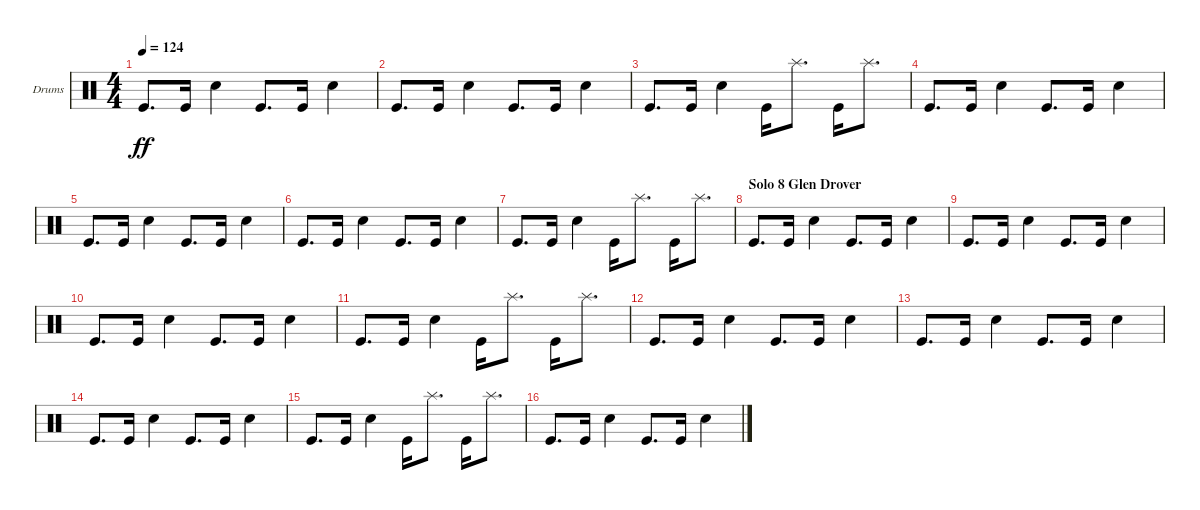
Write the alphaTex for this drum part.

\defaultSystemsLayout 4
\bracketExtendMode groupsimilarinstruments
\firstSystemTrackNameOrientation horizontal
\otherSystemsTrackNameOrientation horizontal
\track ("Nick Menza" "Drums") {instrument percussion}
\staff {score}
\articulation defaults
\ts (4 4)
\tempo 124
\clef neutral
\scale
0.333333
\ks c "Kick (hit)".8{d dy ff} "Kick (hit)".16 "Snare (hit) 2".4 "Kick (hit)".8{d} "Kick (hit)".16 "Snare (hit) 2".4
|
\scale
0.333333 "Kick (hit)".8{d} "Kick (hit)".16 "Snare (hit) 2".4 "Kick (hit)".8{d} "Kick (hit)".16 "Snare (hit) 2".4 |
\scale
0.333333 "Kick (hit)".8{d} "Kick (hit)".16 "Snare (hit) 2".4 "Kick (hit)".16 "Splash (hit)".8{d} "Kick (hit)".16 "Splash (hit)".8{d} |
\scale
0.333333 "Kick (hit)".8{d} "Kick (hit)".16 "Snare (hit) 2".4 "Kick (hit)".8{d} "Kick (hit)".16 "Snare (hit) 2".4 |
\scale
0.333333 "Kick (hit)".8{d} "Kick (hit)".16 "Snare (hit) 2".4 "Kick (hit)".8{d} "Kick (hit)".16 "Snare (hit) 2".4 |
\scale
0.333333 "Kick (hit)".8{d} "Kick (hit)".16 "Snare (hit) 2".4 "Kick (hit)".8{d} "Kick (hit)".16 "Snare (hit) 2".4 |
\scale
0.333333 "Kick (hit)".8{d} "Kick (hit)".16 "Snare (hit) 2".4 "Kick (hit)".16 "Splash (hit)".8{d} "Kick (hit)".16 "Splash (hit)".8{d} |
\section ("" "Solo 8 Glen Drover")
\scale
0.333333 "Kick (hit)".8{d} "Kick (hit)".16 "Snare (hit) 2".4 "Kick (hit)".8{d} "Kick (hit)".16 "Snare (hit) 2".4 |
\scale
0.333333 "Kick (hit)".8{d} "Kick (hit)".16 "Snare (hit) 2".4 "Kick (hit)".8{d} "Kick (hit)".16 "Snare (hit) 2".4 |
\scale
0.333333 "Kick (hit)".8{d} "Kick (hit)".16 "Snare (hit) 2".4 "Kick (hit)".8{d} "Kick (hit)".16 "Snare (hit) 2".4 |
\scale
0.333333 "Kick (hit)".8{d} "Kick (hit)".16 "Snare (hit) 2".4 "Kick (hit)".16 "Splash (hit)".8{d} "Kick (hit)".16 "Splash (hit)".8{d} |
\scale
0.333333 "Kick (hit)".8{d} "Kick (hit)".16 "Snare (hit) 2".4 "Kick (hit)".8{d} "Kick (hit)".16 "Snare (hit) 2".4 |
\scale
0.333333 "Kick (hit)".8{d} "Kick (hit)".16 "Snare (hit) 2".4 "Kick (hit)".8{d} "Kick (hit)".16 "Snare (hit) 2".4 |
\scale
0.333333 "Kick (hit)".8{d} "Kick (hit)".16 "Snare (hit) 2".4 "Kick (hit)".8{d} "Kick (hit)".16 "Snare (hit) 2".4 |
\scale
0.333333 "Kick (hit)".8{d} "Kick (hit)".16 "Snare (hit) 2".4 "Kick (hit)".16 "Splash (hit)".8{d} "Kick (hit)".16 "Splash (hit)".8{d} |
\scale
0.333333 "Kick (hit)".8{d} "Kick (hit)".16 "Snare (hit) 2".4 "Kick (hit)".8{d} "Kick (hit)".16 "Snare (hit) 2".4
